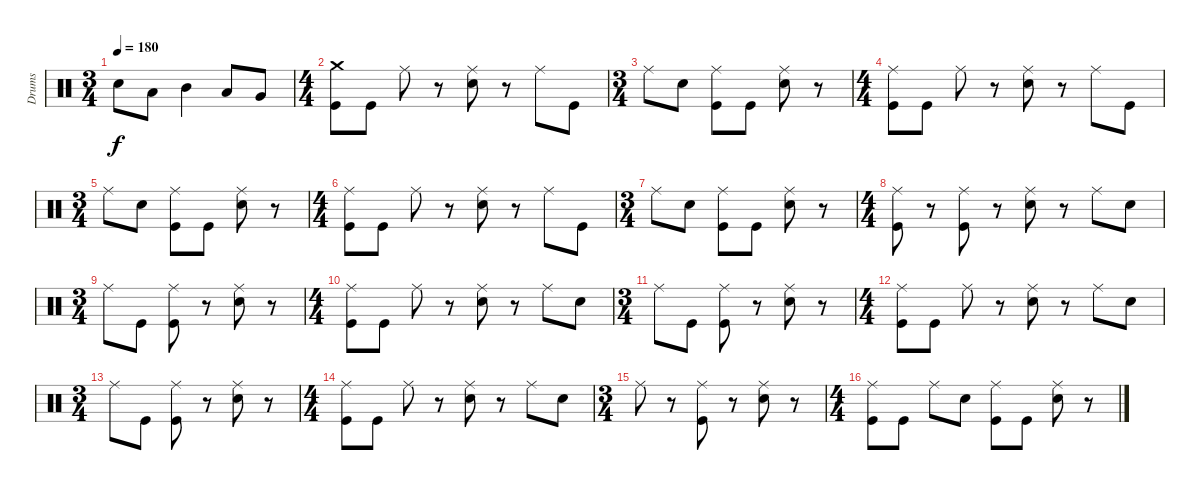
\track ("Drums" "Drums") {instrument percussion}
\staff {score}
\articulation defaults
\ts (3 4)
\tempo 180
\clef neutral
\ks c "Snare (hit)"{t}.8{dy f} "Low Tom (hit)".8 "Mid Tom (hit)".4 "Low Tom (hit)".8 "Very Low Tom (hit)".8
|
\ts (4 4)
("Crash medium (hit)" "Kick (hit)").8 "Kick (hit)".8 "Ride (middle)".8 r.8 ("Ride (middle)" "Electric Snare (hit)").8 r.8 "Ride (middle)".8 "Kick (hit)".8 |
\ts (3 4)
"Ride (middle)".8 "Electric Snare (hit)".8 ("Ride (middle)" "Kick (hit)").8 "Kick (hit)".8 ("Ride (middle)" "Electric Snare (hit)").8 r.8 |
\ts (4 4)
("Ride (middle)" "Kick (hit)").8 "Kick (hit)".8 "Ride (middle)".8 r.8 ("Ride (middle)" "Electric Snare (hit)").8 r.8 "Ride (middle)".8 "Kick (hit)".8 |
\ts (3 4)
"Ride (middle)".8 "Electric Snare (hit)".8 ("Ride (middle)" "Kick (hit)").8 "Kick (hit)".8 ("Ride (middle)" "Electric Snare (hit)").8 r.8 |
\ts (4 4)
("Ride (middle)" "Kick (hit)").8 "Kick (hit)".8 "Ride (middle)".8 r.8 ("Ride (middle)" "Electric Snare (hit)").8 r.8 "Ride (middle)".8 "Kick (hit)".8 |
\ts (3 4)
"Ride (middle)".8 "Electric Snare (hit)".8 ("Ride (middle)" "Kick (hit)").8 "Kick (hit)".8 ("Ride (middle)" "Electric Snare (hit)").8 r.8 |
\ts (4 4)
("Ride (middle)" "Kick (hit)").8 r.8 ("Ride (middle)" "Kick (hit)").8 r.8 ("Ride (middle)" "Electric Snare (hit)").8 r.8 "Ride (middle)".8 "Electric Snare (hit)".8 |
\ts (3 4)
"Ride (middle)".8 "Kick (hit)".8 ("Ride (middle)" "Kick (hit)").8 r.8 ("Ride (middle)" "Electric Snare (hit)").8 r.8 |
\ts (4 4)
("Ride (middle)" "Kick (hit)").8 "Kick (hit)".8 "Ride (middle)".8 r.8 ("Ride (middle)" "Electric Snare (hit)").8 r.8 "Ride (middle)".8 "Electric Snare (hit)".8 |
\ts (3 4)
"Ride (middle)".8 "Kick (hit)".8 ("Ride (middle)" "Kick (hit)").8 r.8 ("Ride (middle)" "Electric Snare (hit)").8 r.8 |
\ts (4 4)
("Ride (middle)" "Kick (hit)").8 "Kick (hit)".8 "Ride (middle)".8 r.8 ("Ride (middle)" "Electric Snare (hit)").8 r.8 "Ride (middle)".8 "Electric Snare (hit)".8 |
\ts (3 4)
"Ride (middle)".8 "Kick (hit)".8 ("Ride (middle)" "Kick (hit)").8 r.8 ("Ride (middle)" "Electric Snare (hit)").8 r.8 |
\ts (4 4)
("Ride (middle)" "Kick (hit)").8 "Kick (hit)".8 "Ride (middle)".8 r.8 ("Ride (middle)" "Electric Snare (hit)").8 r.8 "Ride (middle)".8 "Electric Snare (hit)".8 |
\ts (3 4)
"Ride (middle)".8 r.8 ("Ride (middle)" "Kick (hit)").8 r.8 ("Ride (middle)" "Electric Snare (hit)").8 r.8 |
\ts (4 4)
("Ride (middle)" "Kick (hit)").8 "Kick (hit)".8 "Ride (middle)".8 "Electric Snare (hit)".8 ("Ride (middle)" "Kick (hit)").8 "Kick (hit)".8 ("Ride (middle)" "Electric Snare (hit)").8 r.8
